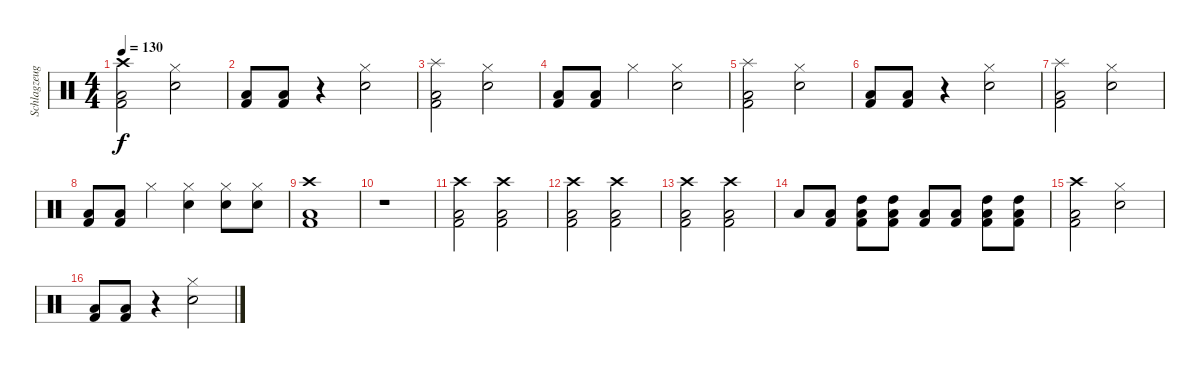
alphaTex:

\track ("Schlagzeug" "Schlagzeug") {instrument percussion}
\staff {score}
\articulation defaults
\ts (4 4)
\tempo 130
\clef neutral
\ks c
("Crash high (hit)" "Low Floor Tom (hit)" "Kick (hit) 2").2{dy f} ("Snare (hit) 2" "Hi-Hat (closed)").2 |
("Low Floor Tom (hit)" "Kick (hit) 2").8 ("Low Floor Tom (hit)" "Kick (hit) 2").8 r.4 ("Snare (hit) 2" "Hi-Hat (closed)").2 |
("Splash (hit)" "Low Floor Tom (hit)" "Kick (hit) 2").2 ("Snare (hit) 2" "Hi-Hat (closed)").2 |
("Low Floor Tom (hit)" "Kick (hit) 2").8 ("Low Floor Tom (hit)" "Kick (hit) 2").8 "Hi-Hat (closed)".4 ("Snare (hit) 2" "Hi-Hat (closed)").2 |
("Splash (hit)" "Low Floor Tom (hit)" "Kick (hit) 2").2 ("Snare (hit) 2" "Hi-Hat (closed)").2 |
("Low Floor Tom (hit)" "Kick (hit) 2").8 ("Low Floor Tom (hit)" "Kick (hit) 2").8 r.4 ("Snare (hit) 2" "Hi-Hat (closed)").2 |
("Splash (hit)" "Low Floor Tom (hit)" "Kick (hit) 2").2 ("Snare (hit) 2" "Hi-Hat (closed)").2 |
("Low Floor Tom (hit)" "Kick (hit) 2").8 ("Low Floor Tom (hit)" "Kick (hit) 2").8 "Hi-Hat (closed)".4 ("Snare (hit) 2" "Hi-Hat (closed)").4 ("Snare (hit) 2" "Hi-Hat (closed)").8 ("Snare (hit) 2" "Hi-Hat (closed)").8 |
("Low Floor Tom (hit)" "Crash high (hit)" "Kick (hit) 2").1 |
r.1 |
("Low Floor Tom (hit)" "Crash high (hit)" "Kick (hit) 2").2 ("Low Floor Tom (hit)" "Crash high (hit)" "Kick (hit) 2").2 |
("Low Floor Tom (hit)" "Crash high (hit)" "Kick (hit) 2").2 ("Low Floor Tom (hit)" "Crash high (hit)" "Kick (hit) 2").2 |
("Low Floor Tom (hit)" "Crash high (hit)" "Kick (hit) 2").2 ("Low Floor Tom (hit)" "Crash high (hit)" "Kick (hit) 2").2 |
"Low Floor Tom (hit)".8 ("Low Floor Tom (hit)" "Kick (hit) 2").8 ("High Tom (hit)" "Low Floor Tom (hit)" "Kick (hit) 2").8 ("High Tom (hit)" "Low Floor Tom (hit)" "Kick (hit) 2").8 ("Kick (hit) 2" "Low Floor Tom (hit)").8 ("Kick (hit) 2" "Low Floor Tom (hit)").8 ("High Tom (hit)" "Kick (hit) 2" "Low Floor Tom (hit)").8 ("High Tom (hit)" "Kick (hit) 2" "Low Floor Tom (hit)").8 |
("Crash high (hit)" "Low Floor Tom (hit)" "Kick (hit) 2").2 ("Snare (hit) 2" "Hi-Hat (closed)").2 |
("Low Floor Tom (hit)" "Kick (hit) 2").8 ("Low Floor Tom (hit)" "Kick (hit) 2").8 r.4 ("Snare (hit) 2" "Hi-Hat (closed)").2
